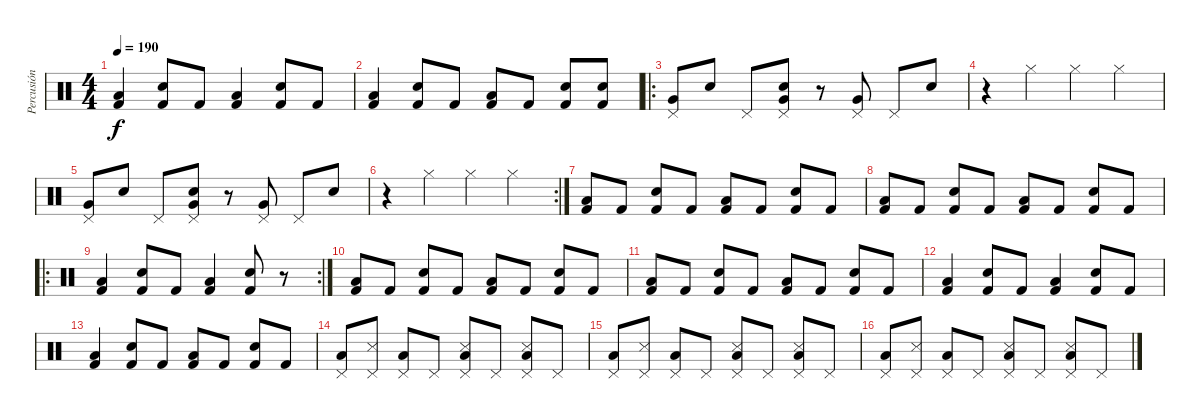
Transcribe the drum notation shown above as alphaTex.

\track ("Percusión" "Percusión") {instrument percussion}
\staff {score}
\articulation defaults
\ts (4 4)
\tempo 190
\clef neutral
\ks c
("Low Tom (hit)" "Kick (hit) 2").4{dy f} ("Snare (hit) 2" "Kick (hit) 2").8 "Kick (hit) 2".8 ("Low Tom (hit)" "Kick (hit) 2").4 ("Snare (hit) 2" "Kick (hit) 2").8 "Kick (hit) 2".8 |
("Low Tom (hit)" "Kick (hit) 2").4 ("Snare (hit) 2" "Kick (hit) 2").8 "Kick (hit) 2".8 ("Low Tom (hit)" "Kick (hit) 2").8 "Kick (hit) 2".8 ("Snare (hit) 2" "Kick (hit) 2").8 ("Kick (hit) 2" "Snare (hit) 2").8 |
\ro
("Pedal Hi-Hat (hit)" "Very Low Tom (hit)").8 "Snare (hit) 2".8 "Pedal Hi-Hat (hit)".8 ("Snare (hit) 2" "Pedal Hi-Hat (hit)" "Very Low Tom (hit)").8 r.8 ("Pedal Hi-Hat (hit)" "Very Low Tom (hit)").8 "Pedal Hi-Hat (hit)".8 "Snare (hit) 2".8 |
r.4 "Hi-Hat (closed)".4 "Hi-Hat (closed)".4 "Hi-Hat (closed)".4 |
("Pedal Hi-Hat (hit)" "Very Low Tom (hit)").8 "Snare (hit) 2".8 "Pedal Hi-Hat (hit)".8 ("Snare (hit) 2" "Pedal Hi-Hat (hit)" "Very Low Tom (hit)").8 r.8 ("Pedal Hi-Hat (hit)" "Very Low Tom (hit)").8 "Pedal Hi-Hat (hit)".8 "Snare (hit) 2".8 |
\rc 2
r.4 "Hi-Hat (closed)".4 "Hi-Hat (closed)".4 "Hi-Hat (closed)".4 |
("Low Tom (hit)" "Kick (hit) 2").8 "Kick (hit) 2".8 ("Snare (hit) 2" "Kick (hit) 2").8 "Kick (hit) 2".8 ("Low Tom (hit)" "Kick (hit) 2").8 "Kick (hit) 2".8 ("Snare (hit) 2" "Kick (hit) 2").8 "Kick (hit) 2".8 |
("Low Tom (hit)" "Kick (hit) 2").8 "Kick (hit) 2".8 ("Snare (hit) 2" "Kick (hit) 2").8 "Kick (hit) 2".8 ("Low Tom (hit)" "Kick (hit) 2").8 "Kick (hit) 2".8 ("Snare (hit) 2" "Kick (hit) 2").8 "Kick (hit) 2".8 |
\ro
\rc 2
("Low Tom (hit)" "Kick (hit) 2").4 ("Snare (hit) 2" "Kick (hit) 2").8 "Kick (hit) 2".8 ("Low Tom (hit)" "Kick (hit) 2").4 ("Snare (hit) 2" "Kick (hit) 2").8 r.8 |
("Low Tom (hit)" "Kick (hit) 2").8 "Kick (hit) 2".8 ("Snare (hit) 2" "Kick (hit) 2").8 "Kick (hit) 2".8 ("Low Tom (hit)" "Kick (hit) 2").8 "Kick (hit) 2".8 ("Snare (hit) 2" "Kick (hit) 2").8 "Kick (hit) 2".8 |
("Low Tom (hit)" "Kick (hit) 2").8 "Kick (hit) 2".8 ("Snare (hit) 2" "Kick (hit) 2").8 "Kick (hit) 2".8 ("Low Tom (hit)" "Kick (hit) 2").8 "Kick (hit) 2".8 ("Snare (hit) 2" "Kick (hit) 2").8 "Kick (hit) 2".8 |
("Low Tom (hit)" "Kick (hit) 2").4 ("Snare (hit) 2" "Kick (hit) 2").8 "Kick (hit) 2".8 ("Low Tom (hit)" "Kick (hit) 2").4 ("Snare (hit) 2" "Kick (hit) 2").8 "Kick (hit) 2".8 |
("Low Tom (hit)" "Kick (hit) 2").4 ("Snare (hit) 2" "Kick (hit) 2").8 "Kick (hit) 2".8 ("Low Tom (hit)" "Kick (hit) 2").8 "Kick (hit) 2".8 ("Snare (hit) 2" "Kick (hit) 2").8 "Kick (hit) 2".8 |
("Low Tom (hit)" "Pedal Hi-Hat (hit)").8 ("Metronome (hit)" "Pedal Hi-Hat (hit)").8 ("Low Tom (hit)" "Pedal Hi-Hat (hit)").8 "Pedal Hi-Hat (hit)".8 ("Metronome (hit)" "Low Tom (hit)" "Pedal Hi-Hat (hit)").8 "Pedal Hi-Hat (hit)".8 ("Metronome (hit)" "Low Tom (hit)" "Pedal Hi-Hat (hit)").8 "Pedal Hi-Hat (hit)".8 |
("Low Tom (hit)" "Pedal Hi-Hat (hit)").8 ("Metronome (hit)" "Pedal Hi-Hat (hit)").8 ("Low Tom (hit)" "Pedal Hi-Hat (hit)").8 "Pedal Hi-Hat (hit)".8 ("Metronome (hit)" "Low Tom (hit)" "Pedal Hi-Hat (hit)").8 "Pedal Hi-Hat (hit)".8 ("Metronome (hit)" "Low Tom (hit)" "Pedal Hi-Hat (hit)").8 "Pedal Hi-Hat (hit)".8 |
("Low Tom (hit)" "Pedal Hi-Hat (hit)").8 ("Metronome (hit)" "Pedal Hi-Hat (hit)").8 ("Low Tom (hit)" "Pedal Hi-Hat (hit)").8 "Pedal Hi-Hat (hit)".8 ("Metronome (hit)" "Low Tom (hit)" "Pedal Hi-Hat (hit)").8 "Pedal Hi-Hat (hit)".8 ("Metronome (hit)" "Low Tom (hit)" "Pedal Hi-Hat (hit)").8 "Pedal Hi-Hat (hit)".8
